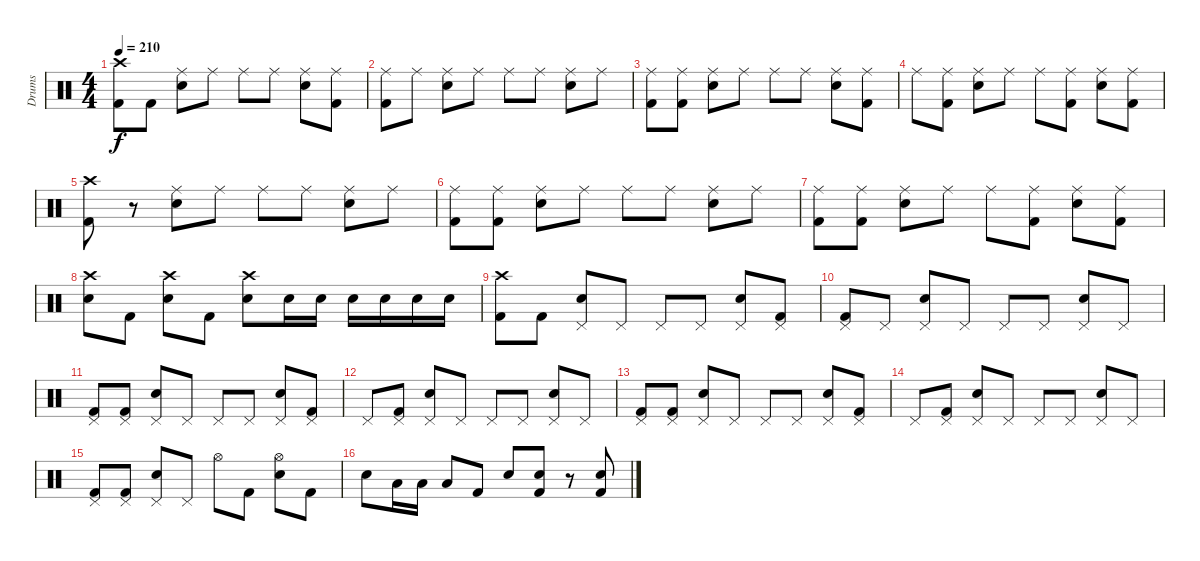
\track ("Drums" "Drums") {instrument percussion}
\staff {score}
\articulation defaults
\ts (4 4)
\tempo 210
\clef neutral
\ks c
("Crash high (hit)" "Kick (hit) 2").8{dy f} "Kick (hit) 2".8 ("Ride (middle)" "Electric Snare (hit)").8 "Ride (middle)".8 "Ride (middle)".8 "Ride (middle)".8 ("Ride (middle)" "Electric Snare (hit)").8 ("Ride (middle)" "Kick (hit) 2").8 |
("Ride (middle)" "Kick (hit) 2").8 "Ride (middle)".8 ("Ride (middle)" "Electric Snare (hit)").8 "Ride (middle)".8 "Ride (middle)".8 "Ride (middle)".8 ("Ride (middle)" "Electric Snare (hit)").8 "Ride (middle)".8 |
("Ride (middle)" "Kick (hit) 2").8 ("Ride (middle)" "Kick (hit) 2").8 ("Ride (middle)" "Electric Snare (hit)").8 "Ride (middle)".8 "Ride (middle)".8 "Ride (middle)".8 ("Ride (middle)" "Electric Snare (hit)").8 ("Ride (middle)" "Kick (hit) 2").8 |
"Ride (middle)".8 ("Ride (middle)" "Kick (hit) 2").8 ("Ride (middle)" "Electric Snare (hit)").8 "Ride (middle)".8 "Ride (middle)".8 ("Ride (middle)" "Kick (hit) 2").8 ("Ride (middle)" "Electric Snare (hit)").8 ("Ride (middle)" "Kick (hit) 2").8 |
("Crash high (hit)" "Kick (hit) 2").8 r.8 ("Ride (middle)" "Electric Snare (hit)").8 "Ride (middle)".8 "Ride (middle)".8 "Ride (middle)".8 ("Ride (middle)" "Electric Snare (hit)").8 "Ride (middle)".8 |
("Ride (middle)" "Kick (hit) 2").8 ("Ride (middle)" "Kick (hit) 2").8 ("Ride (middle)" "Electric Snare (hit)").8 "Ride (middle)".8 "Ride (middle)".8 "Ride (middle)".8 ("Ride (middle)" "Electric Snare (hit)").8 "Ride (middle)".8 |
("Ride (middle)" "Kick (hit) 2").8 ("Ride (middle)" "Kick (hit) 2").8 ("Ride (middle)" "Electric Snare (hit)").8 "Ride (middle)".8 "Ride (middle)".8 ("Ride (middle)" "Kick (hit) 2").8 ("Ride (middle)" "Electric Snare (hit)").8 ("Ride (middle)" "Kick (hit) 2").8 |
("Crash high (hit)" "Electric Snare (hit)").8 "Kick (hit) 2".8 ("Crash high (hit)" "Electric Snare (hit)").8 "Kick (hit) 2".8 ("Crash high (hit)" "Electric Snare (hit)").8 "Electric Snare (hit)".16 "Electric Snare (hit)".16 "Electric Snare (hit)".16 "Electric Snare (hit)".16 "Electric Snare (hit)".16 "Electric Snare (hit)".16 |
("Crash high (hit)" "Kick (hit) 2").8 "Kick (hit) 2".8 ("Pedal Hi-Hat (hit)" "Electric Snare (hit)").8 "Pedal Hi-Hat (hit)".8 "Pedal Hi-Hat (hit)".8 "Pedal Hi-Hat (hit)".8 ("Pedal Hi-Hat (hit)" "Electric Snare (hit)").8 ("Pedal Hi-Hat (hit)" "Kick (hit) 2").8 |
("Pedal Hi-Hat (hit)" "Kick (hit) 2").8 "Pedal Hi-Hat (hit)".8 ("Pedal Hi-Hat (hit)" "Electric Snare (hit)").8 "Pedal Hi-Hat (hit)".8 "Pedal Hi-Hat (hit)".8 "Pedal Hi-Hat (hit)".8 ("Pedal Hi-Hat (hit)" "Electric Snare (hit)").8 "Pedal Hi-Hat (hit)".8 |
("Pedal Hi-Hat (hit)" "Kick (hit) 2").8 ("Pedal Hi-Hat (hit)" "Kick (hit) 2").8 ("Pedal Hi-Hat (hit)" "Electric Snare (hit)").8 "Pedal Hi-Hat (hit)".8 "Pedal Hi-Hat (hit)".8 "Pedal Hi-Hat (hit)".8 ("Pedal Hi-Hat (hit)" "Electric Snare (hit)").8 ("Pedal Hi-Hat (hit)" "Kick (hit) 2").8 |
"Pedal Hi-Hat (hit)".8 ("Pedal Hi-Hat (hit)" "Kick (hit) 2").8 ("Pedal Hi-Hat (hit)" "Electric Snare (hit)").8 "Pedal Hi-Hat (hit)".8 "Pedal Hi-Hat (hit)".8 "Pedal Hi-Hat (hit)".8 ("Pedal Hi-Hat (hit)" "Electric Snare (hit)").8 "Pedal Hi-Hat (hit)".8 |
("Pedal Hi-Hat (hit)" "Kick (hit) 2").8 ("Pedal Hi-Hat (hit)" "Kick (hit) 2").8 ("Pedal Hi-Hat (hit)" "Electric Snare (hit)").8 "Pedal Hi-Hat (hit)".8 "Pedal Hi-Hat (hit)".8 "Pedal Hi-Hat (hit)".8 ("Pedal Hi-Hat (hit)" "Electric Snare (hit)").8 ("Pedal Hi-Hat (hit)" "Kick (hit) 2").8 |
"Pedal Hi-Hat (hit)".8 ("Pedal Hi-Hat (hit)" "Kick (hit) 2").8 ("Pedal Hi-Hat (hit)" "Electric Snare (hit)").8 "Pedal Hi-Hat (hit)".8 "Pedal Hi-Hat (hit)".8 "Pedal Hi-Hat (hit)".8 ("Pedal Hi-Hat (hit)" "Electric Snare (hit)").8 "Pedal Hi-Hat (hit)".8 |
("Pedal Hi-Hat (hit)" "Kick (hit) 2").8 ("Pedal Hi-Hat (hit)" "Kick (hit) 2").8 ("Pedal Hi-Hat (hit)" "Electric Snare (hit)").8 "Pedal Hi-Hat (hit)".8 "Hi-Hat (open)".8 "Kick (hit) 2".8 ("Hi-Hat (open)" "Electric Snare (hit)").8 "Kick (hit) 2".8 |
"Electric Snare (hit)".8 "Low Tom (hit)".16 "Low Tom (hit)".16 "Low Tom (hit)".8 "Kick (hit) 2".8 "Electric Snare (hit)".8 ("Snare (hit)"{x} "Kick (hit) 2").8 r.8 ("Snare (hit)"{x} "Kick (hit) 2").8
